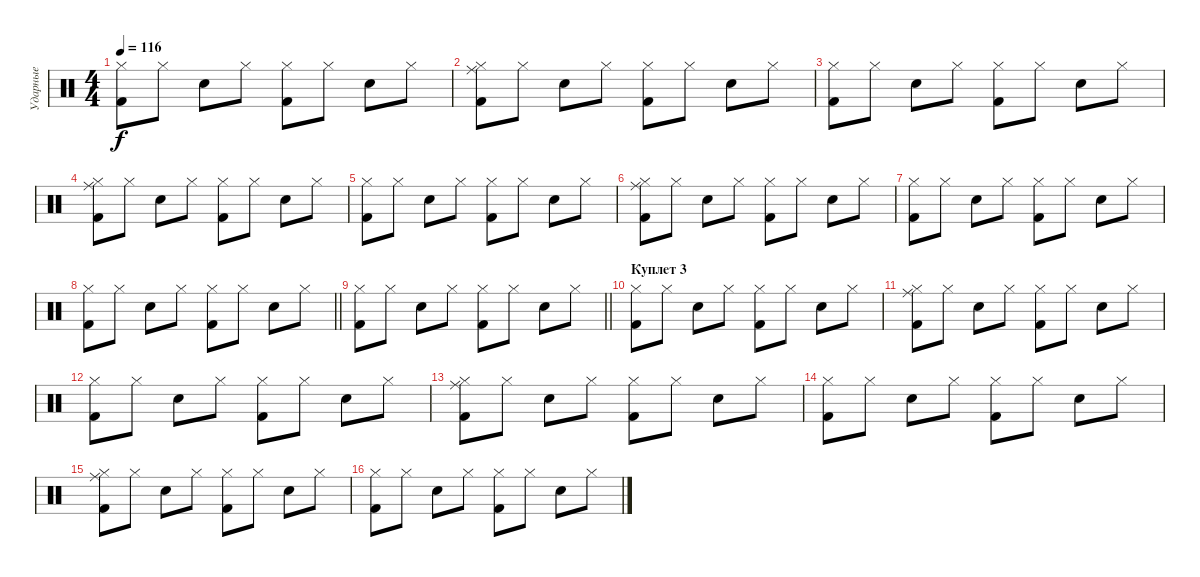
\track ("Ударные" "Ударные") {instrument percussion}
\staff {score}
\articulation defaults
\ts (4 4)
\tempo 116
\clef neutral
\ks c
("Hi-Hat (closed)" "Kick (hit) 2").8{dy f} "Hi-Hat (closed)".8 "Snare (hit) 2".8 "Hi-Hat (closed)".8 ("Hi-Hat (closed)" "Kick (hit) 2").8 "Hi-Hat (closed)".8 "Snare (hit) 2".8 "Hi-Hat (closed)".8 |
("Hi-Hat (closed)" "Kick (hit) 2" "Ride (middle)").8 "Hi-Hat (closed)".8 "Snare (hit) 2".8 "Hi-Hat (closed)".8 ("Hi-Hat (closed)" "Kick (hit) 2").8 "Hi-Hat (closed)".8 "Snare (hit) 2".8 "Hi-Hat (closed)".8 |
("Hi-Hat (closed)" "Kick (hit) 2").8 "Hi-Hat (closed)".8 "Snare (hit) 2".8 "Hi-Hat (closed)".8 ("Hi-Hat (closed)" "Kick (hit) 2").8 "Hi-Hat (closed)".8 "Snare (hit) 2".8 "Hi-Hat (closed)".8 |
("Hi-Hat (closed)" "Kick (hit) 2" "Ride (middle)").8 "Hi-Hat (closed)".8 "Snare (hit) 2".8 "Hi-Hat (closed)".8 ("Hi-Hat (closed)" "Kick (hit) 2").8 "Hi-Hat (closed)".8 "Snare (hit) 2".8 "Hi-Hat (closed)".8 |
("Hi-Hat (closed)" "Kick (hit) 2").8 "Hi-Hat (closed)".8 "Snare (hit) 2".8 "Hi-Hat (closed)".8 ("Hi-Hat (closed)" "Kick (hit) 2").8 "Hi-Hat (closed)".8 "Snare (hit) 2".8 "Hi-Hat (closed)".8 |
("Hi-Hat (closed)" "Kick (hit) 2" "Ride (middle)").8 "Hi-Hat (closed)".8 "Snare (hit) 2".8 "Hi-Hat (closed)".8 ("Hi-Hat (closed)" "Kick (hit) 2").8 "Hi-Hat (closed)".8 "Snare (hit) 2".8 "Hi-Hat (closed)".8 |
("Hi-Hat (closed)" "Kick (hit) 2").8 "Hi-Hat (closed)".8 "Snare (hit) 2".8 "Hi-Hat (closed)".8 ("Hi-Hat (closed)" "Kick (hit) 2").8 "Hi-Hat (closed)".8 "Snare (hit) 2".8 "Hi-Hat (closed)".8 |
\barLineRight lightlight
("Hi-Hat (closed)" "Kick (hit) 2").8 "Hi-Hat (closed)".8 "Snare (hit) 2".8 "Hi-Hat (closed)".8 ("Hi-Hat (closed)" "Kick (hit) 2").8 "Hi-Hat (closed)".8 "Snare (hit) 2".8 "Hi-Hat (closed)".8 |
\barLineRight lightlight
("Hi-Hat (closed)" "Kick (hit) 2").8 "Hi-Hat (closed)".8 "Snare (hit) 2".8 "Hi-Hat (closed)".8 ("Hi-Hat (closed)" "Kick (hit) 2").8 "Hi-Hat (closed)".8 "Snare (hit) 2".8 "Hi-Hat (closed)".8 |
\section ("" "Куплет 3")
("Hi-Hat (closed)" "Kick (hit) 2").8 "Hi-Hat (closed)".8 "Snare (hit) 2".8 "Hi-Hat (closed)".8 ("Hi-Hat (closed)" "Kick (hit) 2").8 "Hi-Hat (closed)".8 "Snare (hit) 2".8 "Hi-Hat (closed)".8 |
("Hi-Hat (closed)" "Kick (hit) 2" "Ride (middle)").8 "Hi-Hat (closed)".8 "Snare (hit) 2".8 "Hi-Hat (closed)".8 ("Hi-Hat (closed)" "Kick (hit) 2").8 "Hi-Hat (closed)".8 "Snare (hit) 2".8 "Hi-Hat (closed)".8 |
("Hi-Hat (closed)" "Kick (hit) 2").8 "Hi-Hat (closed)".8 "Snare (hit) 2".8 "Hi-Hat (closed)".8 ("Hi-Hat (closed)" "Kick (hit) 2").8 "Hi-Hat (closed)".8 "Snare (hit) 2".8 "Hi-Hat (closed)".8 |
("Hi-Hat (closed)" "Kick (hit) 2" "Ride (middle)").8 "Hi-Hat (closed)".8 "Snare (hit) 2".8 "Hi-Hat (closed)".8 ("Hi-Hat (closed)" "Kick (hit) 2").8 "Hi-Hat (closed)".8 "Snare (hit) 2".8 "Hi-Hat (closed)".8 |
("Hi-Hat (closed)" "Kick (hit) 2").8 "Hi-Hat (closed)".8 "Snare (hit) 2".8 "Hi-Hat (closed)".8 ("Hi-Hat (closed)" "Kick (hit) 2").8 "Hi-Hat (closed)".8 "Snare (hit) 2".8 "Hi-Hat (closed)".8 |
("Hi-Hat (closed)" "Kick (hit) 2" "Ride (middle)").8 "Hi-Hat (closed)".8 "Snare (hit) 2".8 "Hi-Hat (closed)".8 ("Hi-Hat (closed)" "Kick (hit) 2").8 "Hi-Hat (closed)".8 "Snare (hit) 2".8 "Hi-Hat (closed)".8 |
("Hi-Hat (closed)" "Kick (hit) 2").8 "Hi-Hat (closed)".8 "Snare (hit) 2".8 "Hi-Hat (closed)".8 ("Hi-Hat (closed)" "Kick (hit) 2").8 "Hi-Hat (closed)".8 "Snare (hit) 2".8 "Hi-Hat (closed)".8
